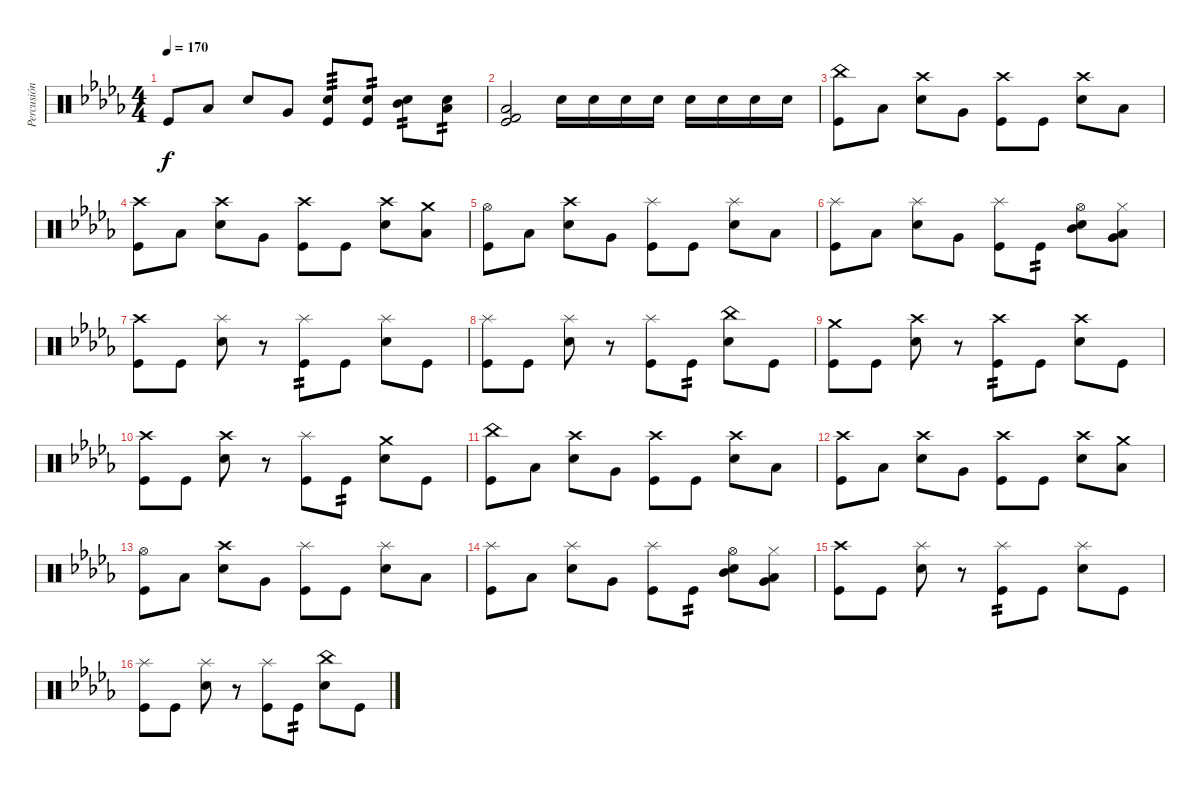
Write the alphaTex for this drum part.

\track ("Percusión" "Percusión") {instrument percussion}
\staff {score}
\articulation defaults
\ts (4 4)
\tempo 170
\clef neutral
\ks db "Kick (hit)".8{dy f} "Low Floor Tom (hit)".8 "Electric Snare (hit)".8 "Very Low Tom (hit)".8
("Electric Snare (hit)" "Kick (hit)").8{tp 3} ("Electric Snare (hit)" "Kick (hit)").8{tp 2} ("Mid Tom (hit)" "Electric Snare (hit)").8{tp 2} ("Low Tom (hit)" "Electric Snare (hit)").8{tp 2} |
("Low Floor Tom (hit)" "Kick (hit)" "Kick (hit) 2").2 "Electric Snare (hit)".16 "Electric Snare (hit)".16 "Electric Snare (hit)".16 "Electric Snare (hit)".16 "Electric Snare (hit)".16 "Electric Snare (hit)".16 "Electric Snare (hit)".16 "Electric Snare (hit)".16 |
("China (hit)" "Kick (hit)").8 "Low Floor Tom (hit)".8 ("Crash high (hit)" "Electric Snare (hit)").8 "Very Low Tom (hit)".8 ("Crash high (hit)" "Kick (hit)").8 "Kick (hit)".8 ("Crash high (hit)" "Electric Snare (hit)").8 "Low Tom (hit)".8 |
("Crash high (hit)" "Kick (hit)").8 "Low Floor Tom (hit)".8 ("Crash high (hit)" "Electric Snare (hit)").8 "Very Low Tom (hit)".8 ("Crash high (hit)" "Kick (hit)").8 "Kick (hit)".8 ("Crash high (hit)" "Electric Snare (hit)").8 ("Crash medium (hit)" "Low Tom (hit)").8 |
("Hi-Hat (open)" "Kick (hit)").8 "Low Floor Tom (hit)".8 ("Crash high (hit)" "Electric Snare (hit)").8 "Very Low Tom (hit)".8 ("Splash (hit)" "Kick (hit)").8 "Kick (hit)".8 ("Splash (hit)" "Electric Snare (hit)").8 "Low Tom (hit)".8 |
("Splash (hit)" "Kick (hit)").8 "Low Floor Tom (hit)".8 ("Splash (hit)" "Electric Snare (hit)").8 "Very Low Tom (hit)".8 ("Splash (hit)" "Kick (hit)").8 "Kick (hit)".8{tp 2} ("Hi-Hat (open)" "Mid Tom (hit)" "Electric Snare (hit)").8 ("Hi-Hat (closed)" "Low Tom (hit)" "Very Low Tom (hit)").8 |
("Crash high (hit)" "Kick (hit)").8 "Kick (hit)".8 ("Splash (hit)" "Electric Snare (hit)").8 r.8 ("Splash (hit)" "Kick (hit)").8{tp 2} "Kick (hit)".8 ("Splash (hit)" "Electric Snare (hit)").8 "Kick (hit)".8 |
("Splash (hit)" "Kick (hit)").8 "Kick (hit)".8 ("Splash (hit)" "Electric Snare (hit)").8 r.8 ("Splash (hit)" "Kick (hit)").8 "Kick (hit)".8{tp 2} ("China (hit)" "Electric Snare (hit)").8 "Kick (hit)".8 |
("Crash medium (hit)" "Kick (hit)").8 "Kick (hit)".8 ("Crash high (hit)" "Electric Snare (hit)").8 r.8 ("Crash high (hit)" "Kick (hit)").8{tp 2} "Kick (hit)".8 ("Crash high (hit)" "Electric Snare (hit)").8 "Kick (hit)".8 |
("Crash high (hit)" "Kick (hit)").8 "Kick (hit)".8 ("Crash high (hit)" "Electric Snare (hit)").8 r.8 ("Splash (hit)" "Kick (hit)").8 "Kick (hit)".8{tp 2} ("Crash medium (hit)" "Electric Snare (hit)").8 "Kick (hit)".8 |
("China (hit)" "Kick (hit)").8 "Low Floor Tom (hit)".8 ("Crash high (hit)" "Electric Snare (hit)").8 "Very Low Tom (hit)".8 ("Crash high (hit)" "Kick (hit)").8 "Kick (hit)".8 ("Crash high (hit)" "Electric Snare (hit)").8 "Low Tom (hit)".8 |
("Crash high (hit)" "Kick (hit)").8 "Low Floor Tom (hit)".8 ("Crash high (hit)" "Electric Snare (hit)").8 "Very Low Tom (hit)".8 ("Crash high (hit)" "Kick (hit)").8 "Kick (hit)".8 ("Crash high (hit)" "Electric Snare (hit)").8 ("Crash medium (hit)" "Low Tom (hit)").8 |
("Hi-Hat (open)" "Kick (hit)").8 "Low Floor Tom (hit)".8 ("Crash high (hit)" "Electric Snare (hit)").8 "Very Low Tom (hit)".8 ("Splash (hit)" "Kick (hit)").8 "Kick (hit)".8 ("Splash (hit)" "Electric Snare (hit)").8 "Low Tom (hit)".8 |
("Splash (hit)" "Kick (hit)").8 "Low Floor Tom (hit)".8 ("Splash (hit)" "Electric Snare (hit)").8 "Very Low Tom (hit)".8 ("Splash (hit)" "Kick (hit)").8 "Kick (hit)".8{tp 2} ("Hi-Hat (open)" "Mid Tom (hit)" "Electric Snare (hit)").8 ("Hi-Hat (closed)" "Low Tom (hit)" "Very Low Tom (hit)").8 |
("Crash high (hit)" "Kick (hit)").8 "Kick (hit)".8 ("Splash (hit)" "Electric Snare (hit)").8 r.8 ("Splash (hit)" "Kick (hit)").8{tp 2} "Kick (hit)".8 ("Splash (hit)" "Electric Snare (hit)").8 "Kick (hit)".8 |
("Splash (hit)" "Kick (hit)").8 "Kick (hit)".8 ("Splash (hit)" "Electric Snare (hit)").8 r.8 ("Splash (hit)" "Kick (hit)").8 "Kick (hit)".8{tp 2} ("China (hit)" "Electric Snare (hit)").8 "Kick (hit)".8
